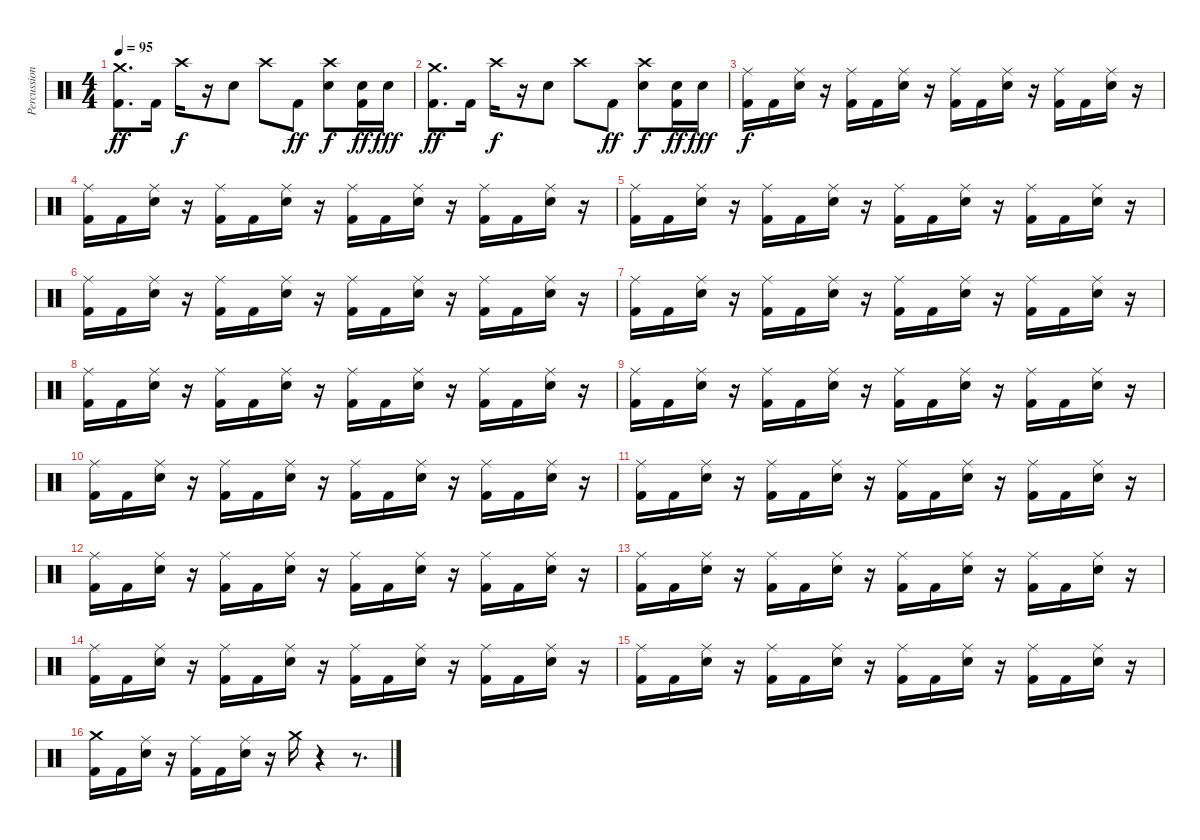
\track ("Percussion" "Percussion") {instrument percussion}
\staff {score}
\articulation defaults
\ts (4 4)
\tempo 95
\clef neutral
\ks c
("Crash medium (hit)" "Kick (hit) 2").8{d dy ff} "Kick (hit) 2".16 "Crash high (hit)".16{dy f} r.16 "Electric Snare (hit)".8 "Crash high (hit)".8 "Kick (hit) 2".8{dy ff} ("Crash high (hit)" "Electric Snare (hit)").8{dy f} ("Electric Snare (hit)" "Kick (hit) 2").16{dy ff} "Electric Snare (hit)".16{dy fff} |
("Crash medium (hit)" "Kick (hit) 2").8{d dy ff} "Kick (hit) 2".16 "Crash high (hit)".16{dy f} r.16 "Electric Snare (hit)".8 "Crash high (hit)".8 "Kick (hit) 2".8{dy ff} ("Crash high (hit)" "Electric Snare (hit)").8{dy f} ("Electric Snare (hit)" "Kick (hit) 2").16{dy ff} "Electric Snare (hit)".16{dy fff} |
("Ride (middle)" "Kick (hit) 2").16{dy f} "Kick (hit) 2".16 ("Ride (middle)" "Electric Snare (hit)").16 r.16 ("Ride (middle)" "Kick (hit) 2").16 "Kick (hit) 2".16 ("Ride (middle)" "Electric Snare (hit)").16 r.16 ("Ride (middle)" "Kick (hit) 2").16 "Kick (hit) 2".16 ("Ride (middle)" "Electric Snare (hit)").16 r.16 ("Ride (middle)" "Kick (hit) 2").16 "Kick (hit) 2".16 ("Ride (middle)" "Electric Snare (hit)").16 r.16 |
("Ride (middle)" "Kick (hit) 2").16 "Kick (hit) 2".16 ("Ride (middle)" "Electric Snare (hit)").16 r.16 ("Ride (middle)" "Kick (hit) 2").16 "Kick (hit) 2".16 ("Ride (middle)" "Electric Snare (hit)").16 r.16 ("Ride (middle)" "Kick (hit) 2").16 "Kick (hit) 2".16 ("Ride (middle)" "Electric Snare (hit)").16 r.16 ("Ride (middle)" "Kick (hit) 2").16 "Kick (hit) 2".16 ("Ride (middle)" "Electric Snare (hit)").16 r.16 |
("Ride (middle)" "Kick (hit) 2").16 "Kick (hit) 2".16 ("Ride (middle)" "Electric Snare (hit)").16 r.16 ("Ride (middle)" "Kick (hit) 2").16 "Kick (hit) 2".16 ("Ride (middle)" "Electric Snare (hit)").16 r.16 ("Ride (middle)" "Kick (hit) 2").16 "Kick (hit) 2".16 ("Ride (middle)" "Electric Snare (hit)").16 r.16 ("Ride (middle)" "Kick (hit) 2").16 "Kick (hit) 2".16 ("Ride (middle)" "Electric Snare (hit)").16 r.16 |
("Ride (middle)" "Kick (hit) 2").16 "Kick (hit) 2".16 ("Ride (middle)" "Electric Snare (hit)").16 r.16 ("Ride (middle)" "Kick (hit) 2").16 "Kick (hit) 2".16 ("Ride (middle)" "Electric Snare (hit)").16 r.16 ("Ride (middle)" "Kick (hit) 2").16 "Kick (hit) 2".16 ("Ride (middle)" "Electric Snare (hit)").16 r.16 ("Ride (middle)" "Kick (hit) 2").16 "Kick (hit) 2".16 ("Ride (middle)" "Electric Snare (hit)").16 r.16 |
("Ride (middle)" "Kick (hit) 2").16 "Kick (hit) 2".16 ("Ride (middle)" "Electric Snare (hit)").16 r.16 ("Ride (middle)" "Kick (hit) 2").16 "Kick (hit) 2".16 ("Ride (middle)" "Electric Snare (hit)").16 r.16 ("Ride (middle)" "Kick (hit) 2").16 "Kick (hit) 2".16 ("Ride (middle)" "Electric Snare (hit)").16 r.16 ("Ride (middle)" "Kick (hit) 2").16 "Kick (hit) 2".16 ("Ride (middle)" "Electric Snare (hit)").16 r.16 |
("Ride (middle)" "Kick (hit) 2").16 "Kick (hit) 2".16 ("Ride (middle)" "Electric Snare (hit)").16 r.16 ("Ride (middle)" "Kick (hit) 2").16 "Kick (hit) 2".16 ("Ride (middle)" "Electric Snare (hit)").16 r.16 ("Ride (middle)" "Kick (hit) 2").16 "Kick (hit) 2".16 ("Ride (middle)" "Electric Snare (hit)").16 r.16 ("Ride (middle)" "Kick (hit) 2").16 "Kick (hit) 2".16 ("Ride (middle)" "Electric Snare (hit)").16 r.16 |
("Ride (middle)" "Kick (hit) 2").16 "Kick (hit) 2".16 ("Ride (middle)" "Electric Snare (hit)").16 r.16 ("Ride (middle)" "Kick (hit) 2").16 "Kick (hit) 2".16 ("Ride (middle)" "Electric Snare (hit)").16 r.16 ("Ride (middle)" "Kick (hit) 2").16 "Kick (hit) 2".16 ("Ride (middle)" "Electric Snare (hit)").16 r.16 ("Ride (middle)" "Kick (hit) 2").16 "Kick (hit) 2".16 ("Ride (middle)" "Electric Snare (hit)").16 r.16 |
("Ride (middle)" "Kick (hit) 2").16 "Kick (hit) 2".16 ("Ride (middle)" "Electric Snare (hit)").16 r.16 ("Ride (middle)" "Kick (hit) 2").16 "Kick (hit) 2".16 ("Ride (middle)" "Electric Snare (hit)").16 r.16 ("Ride (middle)" "Kick (hit) 2").16 "Kick (hit) 2".16 ("Ride (middle)" "Electric Snare (hit)").16 r.16 ("Ride (middle)" "Kick (hit) 2").16 "Kick (hit) 2".16 ("Ride (middle)" "Electric Snare (hit)").16 r.16 |
("Ride (middle)" "Kick (hit) 2").16 "Kick (hit) 2".16 ("Ride (middle)" "Electric Snare (hit)").16 r.16 ("Ride (middle)" "Kick (hit) 2").16 "Kick (hit) 2".16 ("Ride (middle)" "Electric Snare (hit)").16 r.16 ("Ride (middle)" "Kick (hit) 2").16 "Kick (hit) 2".16 ("Ride (middle)" "Electric Snare (hit)").16 r.16 ("Ride (middle)" "Kick (hit) 2").16 "Kick (hit) 2".16 ("Ride (middle)" "Electric Snare (hit)").16 r.16 |
("Ride (middle)" "Kick (hit) 2").16 "Kick (hit) 2".16 ("Ride (middle)" "Electric Snare (hit)").16 r.16 ("Ride (middle)" "Kick (hit) 2").16 "Kick (hit) 2".16 ("Ride (middle)" "Electric Snare (hit)").16 r.16 ("Ride (middle)" "Kick (hit) 2").16 "Kick (hit) 2".16 ("Ride (middle)" "Electric Snare (hit)").16 r.16 ("Ride (middle)" "Kick (hit) 2").16 "Kick (hit) 2".16 ("Ride (middle)" "Electric Snare (hit)").16 r.16 |
("Ride (middle)" "Kick (hit) 2").16 "Kick (hit) 2".16 ("Ride (middle)" "Electric Snare (hit)").16 r.16 ("Ride (middle)" "Kick (hit) 2").16 "Kick (hit) 2".16 ("Ride (middle)" "Electric Snare (hit)").16 r.16 ("Ride (middle)" "Kick (hit) 2").16 "Kick (hit) 2".16 ("Ride (middle)" "Electric Snare (hit)").16 r.16 ("Ride (middle)" "Kick (hit) 2").16 "Kick (hit) 2".16 ("Ride (middle)" "Electric Snare (hit)").16 r.16 |
("Ride (middle)" "Kick (hit) 2").16 "Kick (hit) 2".16 ("Ride (middle)" "Electric Snare (hit)").16 r.16 ("Ride (middle)" "Kick (hit) 2").16 "Kick (hit) 2".16 ("Ride (middle)" "Electric Snare (hit)").16 r.16 ("Ride (middle)" "Kick (hit) 2").16 "Kick (hit) 2".16 ("Ride (middle)" "Electric Snare (hit)").16 r.16 ("Ride (middle)" "Kick (hit) 2").16 "Kick (hit) 2".16 ("Ride (middle)" "Electric Snare (hit)").16 r.16 |
("Ride (middle)" "Kick (hit) 2").16 "Kick (hit) 2".16 ("Ride (middle)" "Electric Snare (hit)").16 r.16 ("Ride (middle)" "Kick (hit) 2").16 "Kick (hit) 2".16 ("Ride (middle)" "Electric Snare (hit)").16 r.16 ("Ride (middle)" "Kick (hit) 2").16 "Kick (hit) 2".16 ("Ride (middle)" "Electric Snare (hit)").16 r.16 ("Ride (middle)" "Kick (hit) 2").16 "Kick (hit) 2".16 ("Ride (middle)" "Electric Snare (hit)").16 r.16 |
("Crash medium (hit)" "Kick (hit) 2").16 "Kick (hit) 2".16 ("Ride (middle)" "Electric Snare (hit)").16 r.16 ("Ride (middle)" "Kick (hit) 2").16 "Kick (hit) 2".16 ("Ride (middle)" "Electric Snare (hit)").16 r.16 "Crash medium (hit)".16 r.4 r.8{d}
